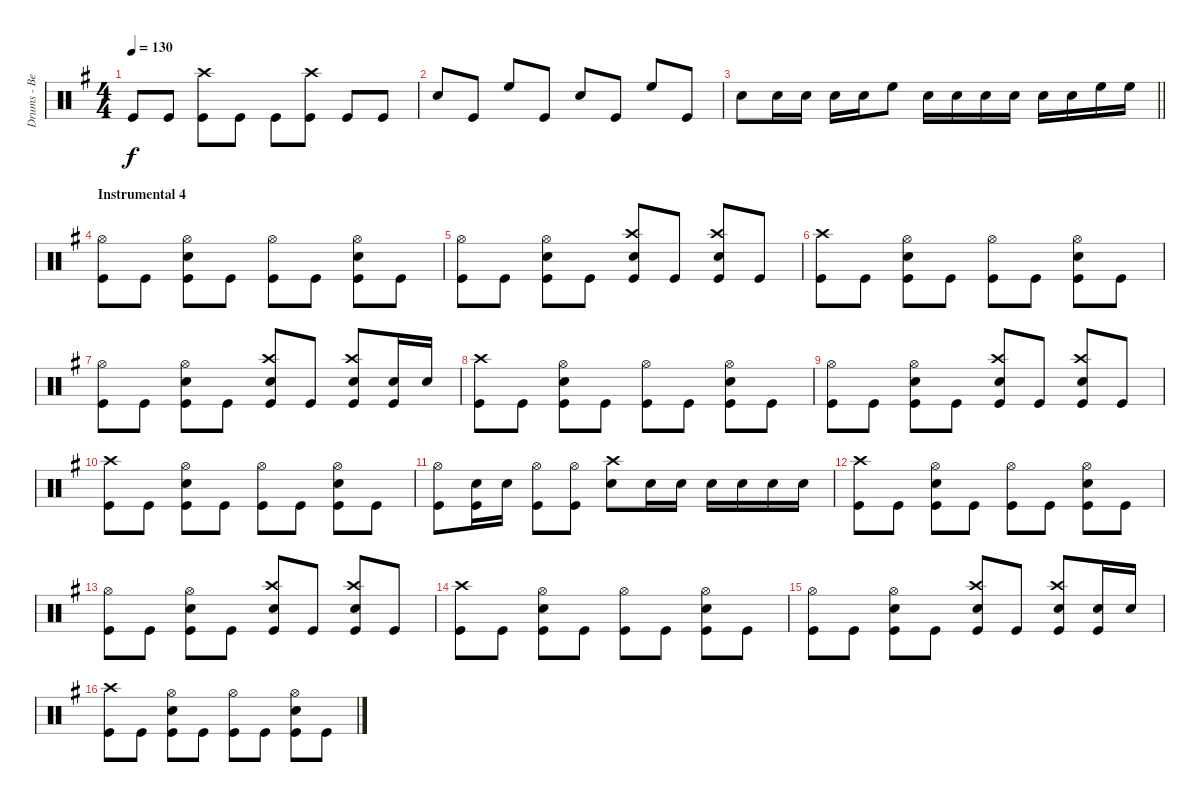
\track ("Drums - Ben Johnston" "Drums - Be") {instrument percussion}
\staff {score}
\articulation defaults
\ts (4 4)
\tempo 130
\clef neutral
\ks g "Kick (hit)".8{dy f} "Kick (hit)".8
("Crash high (hit)" "Kick (hit)").8 "Kick (hit)".8 "Kick (hit)".8 ("Crash high (hit)" "Kick (hit)").8 "Kick (hit)".8 "Kick (hit)".8 |
"Snare (hit) 2".8 "Kick (hit)".8 "High Floor Tom (hit)".8 "Kick (hit)".8 "Snare (hit) 2".8 "Kick (hit)".8 "High Floor Tom (hit)".8 "Kick (hit)".8 |
\barLineRight lightlight "Snare (hit) 2".8 "Snare (hit) 2".16 "Snare (hit) 2".16 "Snare (hit) 2".16 "Snare (hit) 2".16 "High Floor Tom (hit)".8 "Snare (hit) 2".16 "Snare (hit) 2".16 "Snare (hit) 2".16 "Snare (hit) 2".16 "Snare (hit) 2".16 "Snare (hit) 2".16 "High Floor Tom (hit)".16 "High Floor Tom (hit)".16
|
\section ("" "Instrumental 4")
("Hi-Hat (open)" "Kick (hit)").8 "Kick (hit)".8 ("Hi-Hat (open)" "Snare (hit) 2" "Kick (hit)").8 "Kick (hit)".8 ("Hi-Hat (open)" "Kick (hit)").8 "Kick (hit)".8 ("Hi-Hat (open)" "Snare (hit) 2" "Kick (hit)").8 "Kick (hit)".8 |
("Hi-Hat (open)" "Kick (hit)").8 "Kick (hit)".8 ("Hi-Hat (open)" "Snare (hit) 2" "Kick (hit)").8 "Kick (hit)".8 ("Crash high (hit)" "Snare (hit) 2" "Kick (hit)").8 "Kick (hit)".8 ("Crash high (hit)" "Snare (hit) 2" "Kick (hit)").8 "Kick (hit)".8 |
("Crash high (hit)" "Kick (hit)").8 "Kick (hit)".8 ("Hi-Hat (open)" "Snare (hit) 2" "Kick (hit)").8 "Kick (hit)".8 ("Hi-Hat (open)" "Kick (hit)").8 "Kick (hit)".8 ("Hi-Hat (open)" "Snare (hit) 2" "Kick (hit)").8 "Kick (hit)".8 |
("Hi-Hat (open)" "Kick (hit)").8 "Kick (hit)".8 ("Hi-Hat (open)" "Snare (hit) 2" "Kick (hit)").8 "Kick (hit)".8 ("Crash high (hit)" "Snare (hit) 2" "Kick (hit)").8 "Kick (hit)".8 ("Crash high (hit)" "Snare (hit) 2" "Kick (hit)").8 ("Snare (hit) 2" "Kick (hit)").16 "Snare (hit) 2".16 |
("Crash high (hit)" "Kick (hit)").8 "Kick (hit)".8 ("Hi-Hat (open)" "Snare (hit) 2" "Kick (hit)").8 "Kick (hit)".8 ("Hi-Hat (open)" "Kick (hit)").8 "Kick (hit)".8 ("Hi-Hat (open)" "Snare (hit) 2" "Kick (hit)").8 "Kick (hit)".8 |
("Hi-Hat (open)" "Kick (hit)").8 "Kick (hit)".8 ("Hi-Hat (open)" "Snare (hit) 2" "Kick (hit)").8 "Kick (hit)".8 ("Crash high (hit)" "Snare (hit) 2" "Kick (hit)").8 "Kick (hit)".8 ("Crash high (hit)" "Snare (hit) 2" "Kick (hit)").8 "Kick (hit)".8 |
("Crash high (hit)" "Kick (hit)").8 "Kick (hit)".8 ("Hi-Hat (open)" "Snare (hit) 2" "Kick (hit)").8 "Kick (hit)".8 ("Hi-Hat (open)" "Kick (hit)").8 "Kick (hit)".8 ("Hi-Hat (open)" "Snare (hit) 2" "Kick (hit)").8 "Kick (hit)".8 |
("Hi-Hat (open)" "Kick (hit)").8 ("Snare (hit) 2" "Kick (hit)").16 "Snare (hit) 2".16 ("Hi-Hat (open)" "Kick (hit)").8 ("Hi-Hat (open)" "Kick (hit)").8 ("Crash high (hit)" "Snare (hit) 2").8 "Snare (hit) 2".16 "Snare (hit) 2".16 "Snare (hit) 2".16 "Snare (hit) 2".16 "Snare (hit) 2".16 "Snare (hit) 2".16 |
("Crash high (hit)" "Kick (hit)").8 "Kick (hit)".8 ("Hi-Hat (open)" "Snare (hit) 2" "Kick (hit)").8 "Kick (hit)".8 ("Hi-Hat (open)" "Kick (hit)").8 "Kick (hit)".8 ("Hi-Hat (open)" "Snare (hit) 2" "Kick (hit)").8 "Kick (hit)".8 |
("Hi-Hat (open)" "Kick (hit)").8 "Kick (hit)".8 ("Hi-Hat (open)" "Snare (hit) 2" "Kick (hit)").8 "Kick (hit)".8 ("Crash high (hit)" "Snare (hit) 2" "Kick (hit)").8 "Kick (hit)".8 ("Crash high (hit)" "Snare (hit) 2" "Kick (hit)").8 "Kick (hit)".8 |
("Crash high (hit)" "Kick (hit)").8 "Kick (hit)".8 ("Hi-Hat (open)" "Snare (hit) 2" "Kick (hit)").8 "Kick (hit)".8 ("Hi-Hat (open)" "Kick (hit)").8 "Kick (hit)".8 ("Hi-Hat (open)" "Snare (hit) 2" "Kick (hit)").8 "Kick (hit)".8 |
("Hi-Hat (open)" "Kick (hit)").8 "Kick (hit)".8 ("Hi-Hat (open)" "Snare (hit) 2" "Kick (hit)").8 "Kick (hit)".8 ("Crash high (hit)" "Snare (hit) 2" "Kick (hit)").8 "Kick (hit)".8 ("Crash high (hit)" "Snare (hit) 2" "Kick (hit)").8 ("Snare (hit) 2" "Kick (hit)").16 "Snare (hit) 2".16 |
("Crash high (hit)" "Kick (hit)").8 "Kick (hit)".8 ("Hi-Hat (open)" "Snare (hit) 2" "Kick (hit)").8 "Kick (hit)".8 ("Hi-Hat (open)" "Kick (hit)").8 "Kick (hit)".8 ("Hi-Hat (open)" "Snare (hit) 2" "Kick (hit)").8 "Kick (hit)".8
